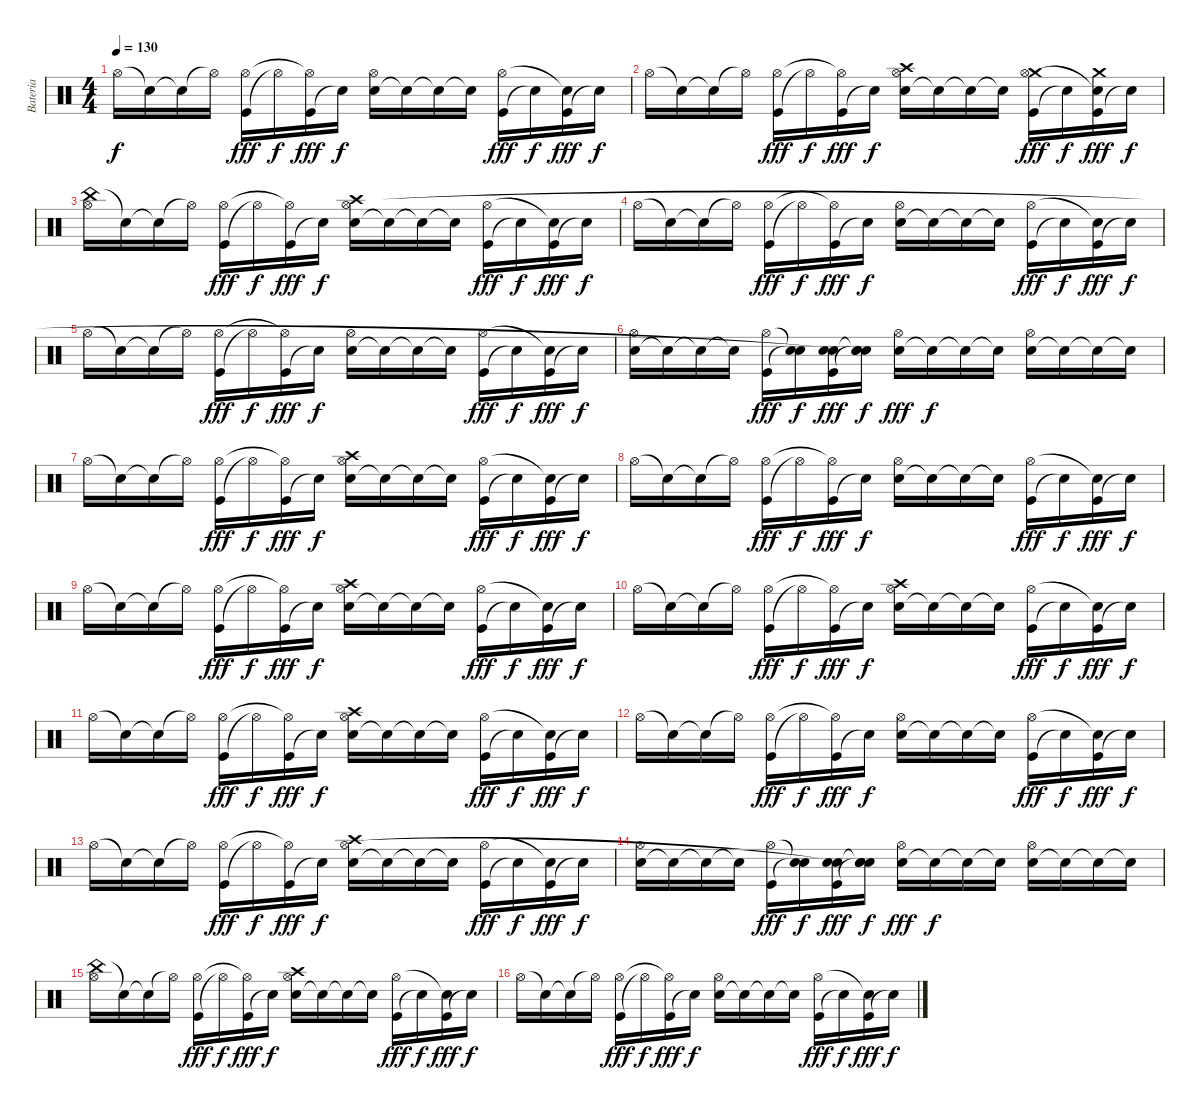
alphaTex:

\track ("Bateria" "Bateria") {instrument percussion}
\staff {score}
\articulation defaults
\ts (4 4)
\tempo 130
\clef neutral
\ks c "Hi-Hat (open)".16{dy f} "Snare (hit)"{t}.16 "Snare (hit)"{t}.16 "Hi-Hat (open)"{t}.16
("Kick (hit)" "Hi-Hat (open)").16{dy fff} "Hi-Hat (open)"{t}.16{dy f} ("Kick (hit)" "Hi-Hat (open)"{t}).16{dy fff} "Snare (hit)"{t}.16{dy f} ("Electric Snare (hit)" "Hi-Hat (open)").16 "Snare (hit)"{t}.16 "Snare (hit)"{t}.16 "Snare (hit)"{t}.16 ("Kick (hit)" "Hi-Hat (open)").16{dy fff} "Snare (hit)"{t}.16{dy f} ("Kick (hit)" "Snare (hit)"{t}).16{dy fff} "Snare (hit)"{t}.16{dy f} |
"Hi-Hat (open)".16 "Snare (hit)"{t}.16 "Snare (hit)"{t}.16 "Hi-Hat (open)"{t}.16 ("Kick (hit)" "Hi-Hat (open)").16{dy fff} "Hi-Hat (open)"{t}.16{dy f} ("Kick (hit)" "Hi-Hat (open)"{t}).16{dy fff} "Snare (hit)"{t}.16{dy f} ("Electric Snare (hit)" "Crash high (hit)" "Hi-Hat (open)").16 "Snare (hit)"{t}.16 "Snare (hit)"{t}.16 "Snare (hit)"{t}.16 ("Kick (hit)" "Crash medium (hit)" "Hi-Hat (open)").16{dy fff} "Snare (hit)"{t}.16{dy f} ("Kick (hit)" "Crash medium (hit)" "Snare (hit)"{t}).16{dy fff} "Snare (hit)"{t}.16{dy f} |
("China (hit)" "Hi-Hat (open)").16 "Snare (hit)"{t}.16 "Snare (hit)"{t}.16 "Hi-Hat (open)"{t}.16 ("Kick (hit)" "Hi-Hat (open)").16{dy fff} "Hi-Hat (open)"{t}.16{dy f} ("Kick (hit)" "Hi-Hat (open)"{t}).16{dy fff} "Snare (hit)"{t}.16{dy f} ("Electric Snare (hit)" "Crash high (hit)" "Hi-Hat (open)").16 "Snare (hit)"{t}.16 "Snare (hit)"{t}.16 "Snare (hit)"{t}.16 ("Kick (hit)" "Hi-Hat (open)").16{dy fff} "Snare (hit)"{t}.16{dy f} ("Kick (hit)" "Snare (hit)"{t}).16{dy fff} "Snare (hit)"{t}.16{dy f} |
"Hi-Hat (open)".16 "Snare (hit)"{t}.16 "Snare (hit)"{t}.16 "Hi-Hat (open)"{t}.16 ("Kick (hit)" "Hi-Hat (open)").16{dy fff} "Hi-Hat (open)"{t}.16{dy f} ("Kick (hit)" "Hi-Hat (open)"{t}).16{dy fff} "Snare (hit)"{t}.16{dy f} ("Electric Snare (hit)" "Hi-Hat (open)").16 "Snare (hit)"{t}.16 "Snare (hit)"{t}.16 "Snare (hit)"{t}.16 ("Kick (hit)" "Hi-Hat (open)").16{dy fff} "Snare (hit)"{t}.16{dy f} ("Kick (hit)" "Snare (hit)"{t}).16{dy fff} "Snare (hit)"{t}.16{dy f} |
"Hi-Hat (open)".16 "Snare (hit)"{t}.16 "Snare (hit)"{t}.16 "Hi-Hat (open)"{t}.16 ("Kick (hit)" "Hi-Hat (open)").16{dy fff} "Hi-Hat (open)"{t}.16{dy f} ("Kick (hit)" "Hi-Hat (open)"{t}).16{dy fff} "Snare (hit)"{t}.16{dy f} ("Electric Snare (hit)" "Hi-Hat (open)").16 "Snare (hit)"{t}.16 "Snare (hit)"{t}.16 "Snare (hit)"{t}.16 ("Kick (hit)" "Hi-Hat (open)").16{dy fff} "Snare (hit)"{t}.16{dy f} ("Kick (hit)" "Snare (hit)"{t}).16{dy fff} "Snare (hit)"{t}.16{dy f} |
("Electric Snare (hit)" "Hi-Hat (open)").16 "Snare (hit)"{t}.16 "Snare (hit)"{t}.16 "Snare (hit)"{t}.16 ("Kick (hit)" "Hi-Hat (open)").16{dy fff} ("Snare (hit)"{t} "Snare (hit)"{t}).16{dy f} ("Kick (hit)" "Electric Snare (hit)" "Snare (hit)"{t}).16{dy fff} ("Snare (hit)"{t} "Electric Snare (hit)" "Snare (hit)"{t}).16{dy f} ("Electric Snare (hit)" "Hi-Hat (open)").16{dy fff} "Snare (hit)"{t}.16{dy f} "Snare (hit)"{t}.16 "Snare (hit)"{t}.16 ("Electric Snare (hit)" "Hi-Hat (open)").16 "Snare (hit)"{t}.16 "Snare (hit)"{t}.16 "Snare (hit)"{t}.16 |
"Hi-Hat (open)".16 "Snare (hit)"{t}.16 "Snare (hit)"{t}.16 "Hi-Hat (open)"{t}.16 ("Kick (hit)" "Hi-Hat (open)").16{dy fff} "Hi-Hat (open)"{t}.16{dy f} ("Kick (hit)" "Hi-Hat (open)"{t}).16{dy fff} "Snare (hit)"{t}.16{dy f} ("Electric Snare (hit)" "Crash high (hit)" "Hi-Hat (open)").16 "Snare (hit)"{t}.16 "Snare (hit)"{t}.16 "Snare (hit)"{t}.16 ("Kick (hit)" "Hi-Hat (open)").16{dy fff} "Snare (hit)"{t}.16{dy f} ("Kick (hit)" "Snare (hit)"{t}).16{dy fff} "Snare (hit)"{t}.16{dy f} |
"Hi-Hat (open)".16 "Snare (hit)"{t}.16 "Snare (hit)"{t}.16 "Hi-Hat (open)"{t}.16 ("Kick (hit)" "Hi-Hat (open)").16{dy fff} "Hi-Hat (open)"{t}.16{dy f} ("Kick (hit)" "Hi-Hat (open)"{t}).16{dy fff} "Snare (hit)"{t}.16{dy f} ("Electric Snare (hit)" "Hi-Hat (open)").16 "Snare (hit)"{t}.16 "Snare (hit)"{t}.16 "Snare (hit)"{t}.16 ("Kick (hit)" "Hi-Hat (open)").16{dy fff} "Snare (hit)"{t}.16{dy f} ("Kick (hit)" "Snare (hit)"{t}).16{dy fff} "Snare (hit)"{t}.16{dy f} |
"Hi-Hat (open)".16 "Snare (hit)"{t}.16 "Snare (hit)"{t}.16 "Hi-Hat (open)"{t}.16 ("Kick (hit)" "Hi-Hat (open)").16{dy fff} "Hi-Hat (open)"{t}.16{dy f} ("Kick (hit)" "Hi-Hat (open)"{t}).16{dy fff} "Snare (hit)"{t}.16{dy f} ("Electric Snare (hit)" "Crash high (hit)" "Hi-Hat (open)").16 "Snare (hit)"{t}.16 "Snare (hit)"{t}.16 "Snare (hit)"{t}.16 ("Kick (hit)" "Hi-Hat (open)").16{dy fff} "Snare (hit)"{t}.16{dy f} ("Kick (hit)" "Snare (hit)"{t}).16{dy fff} "Snare (hit)"{t}.16{dy f} |
"Hi-Hat (open)".16 "Snare (hit)"{t}.16 "Snare (hit)"{t}.16 "Hi-Hat (open)"{t}.16 ("Kick (hit)" "Hi-Hat (open)").16{dy fff} "Hi-Hat (open)"{t}.16{dy f} ("Kick (hit)" "Hi-Hat (open)"{t}).16{dy fff} "Snare (hit)"{t}.16{dy f} ("Electric Snare (hit)" "Crash high (hit)" "Hi-Hat (open)").16 "Snare (hit)"{t}.16 "Snare (hit)"{t}.16 "Snare (hit)"{t}.16 ("Kick (hit)" "Hi-Hat (open)").16{dy fff} "Snare (hit)"{t}.16{dy f} ("Kick (hit)" "Snare (hit)"{t}).16{dy fff} "Snare (hit)"{t}.16{dy f} |
"Hi-Hat (open)".16 "Snare (hit)"{t}.16 "Snare (hit)"{t}.16 "Hi-Hat (open)"{t}.16 ("Kick (hit)" "Hi-Hat (open)").16{dy fff} "Hi-Hat (open)"{t}.16{dy f} ("Kick (hit)" "Hi-Hat (open)"{t}).16{dy fff} "Snare (hit)"{t}.16{dy f} ("Electric Snare (hit)" "Crash high (hit)" "Hi-Hat (open)").16 "Snare (hit)"{t}.16 "Snare (hit)"{t}.16 "Snare (hit)"{t}.16 ("Kick (hit)" "Hi-Hat (open)").16{dy fff} "Snare (hit)"{t}.16{dy f} ("Kick (hit)" "Snare (hit)"{t}).16{dy fff} "Snare (hit)"{t}.16{dy f} |
"Hi-Hat (open)".16 "Snare (hit)"{t}.16 "Snare (hit)"{t}.16 "Hi-Hat (open)"{t}.16 ("Kick (hit)" "Hi-Hat (open)").16{dy fff} "Hi-Hat (open)"{t}.16{dy f} ("Kick (hit)" "Hi-Hat (open)"{t}).16{dy fff} "Snare (hit)"{t}.16{dy f} ("Electric Snare (hit)" "Hi-Hat (open)").16 "Snare (hit)"{t}.16 "Snare (hit)"{t}.16 "Snare (hit)"{t}.16 ("Kick (hit)" "Hi-Hat (open)").16{dy fff} "Snare (hit)"{t}.16{dy f} ("Kick (hit)" "Snare (hit)"{t}).16{dy fff} "Snare (hit)"{t}.16{dy f} |
"Hi-Hat (open)".16 "Snare (hit)"{t}.16 "Snare (hit)"{t}.16 "Hi-Hat (open)"{t}.16 ("Kick (hit)" "Hi-Hat (open)").16{dy fff} "Hi-Hat (open)"{t}.16{dy f} ("Kick (hit)" "Hi-Hat (open)"{t}).16{dy fff} "Snare (hit)"{t}.16{dy f} ("Electric Snare (hit)" "Crash high (hit)" "Hi-Hat (open)").16 "Snare (hit)"{t}.16 "Snare (hit)"{t}.16 "Snare (hit)"{t}.16 ("Kick (hit)" "Hi-Hat (open)").16{dy fff} "Snare (hit)"{t}.16{dy f} ("Kick (hit)" "Snare (hit)"{t}).16{dy fff} "Snare (hit)"{t}.16{dy f} |
("Electric Snare (hit)" "Hi-Hat (open)").16 "Snare (hit)"{t}.16 "Snare (hit)"{t}.16 "Snare (hit)"{t}.16 ("Kick (hit)" "Hi-Hat (open)").16{dy fff} ("Snare (hit)"{t} "Snare (hit)"{t}).16{dy f} ("Kick (hit)" "Electric Snare (hit)" "Snare (hit)"{t}).16{dy fff} ("Snare (hit)"{t} "Electric Snare (hit)" "Snare (hit)"{t}).16{dy f} ("Electric Snare (hit)" "Hi-Hat (open)").16{dy fff} "Snare (hit)"{t}.16{dy f} "Snare (hit)"{t}.16 "Snare (hit)"{t}.16 ("Electric Snare (hit)" "Hi-Hat (open)").16 "Snare (hit)"{t}.16 "Snare (hit)"{t}.16 "Snare (hit)"{t}.16 |
("China (hit)" "Hi-Hat (open)").16 "Snare (hit)"{t}.16 "Snare (hit)"{t}.16 "Hi-Hat (open)"{t}.16 ("Kick (hit)" "Hi-Hat (open)").16{dy fff} "Hi-Hat (open)"{t}.16{dy f} ("Kick (hit)" "Hi-Hat (open)"{t}).16{dy fff} "Snare (hit)"{t}.16{dy f} ("Electric Snare (hit)" "Crash high (hit)" "Hi-Hat (open)").16 "Snare (hit)"{t}.16 "Snare (hit)"{t}.16 "Snare (hit)"{t}.16 ("Kick (hit)" "Hi-Hat (open)").16{dy fff} "Snare (hit)"{t}.16{dy f} ("Kick (hit)" "Snare (hit)"{t}).16{dy fff} "Snare (hit)"{t}.16{dy f} |
"Hi-Hat (open)".16 "Snare (hit)"{t}.16 "Snare (hit)"{t}.16 "Hi-Hat (open)"{t}.16 ("Kick (hit)" "Hi-Hat (open)").16{dy fff} "Hi-Hat (open)"{t}.16{dy f} ("Kick (hit)" "Hi-Hat (open)"{t}).16{dy fff} "Snare (hit)"{t}.16{dy f} ("Electric Snare (hit)" "Hi-Hat (open)").16 "Snare (hit)"{t}.16 "Snare (hit)"{t}.16 "Snare (hit)"{t}.16 ("Kick (hit)" "Hi-Hat (open)").16{dy fff} "Snare (hit)"{t}.16{dy f} ("Kick (hit)" "Snare (hit)"{t}).16{dy fff} "Snare (hit)"{t}.16{dy f}
